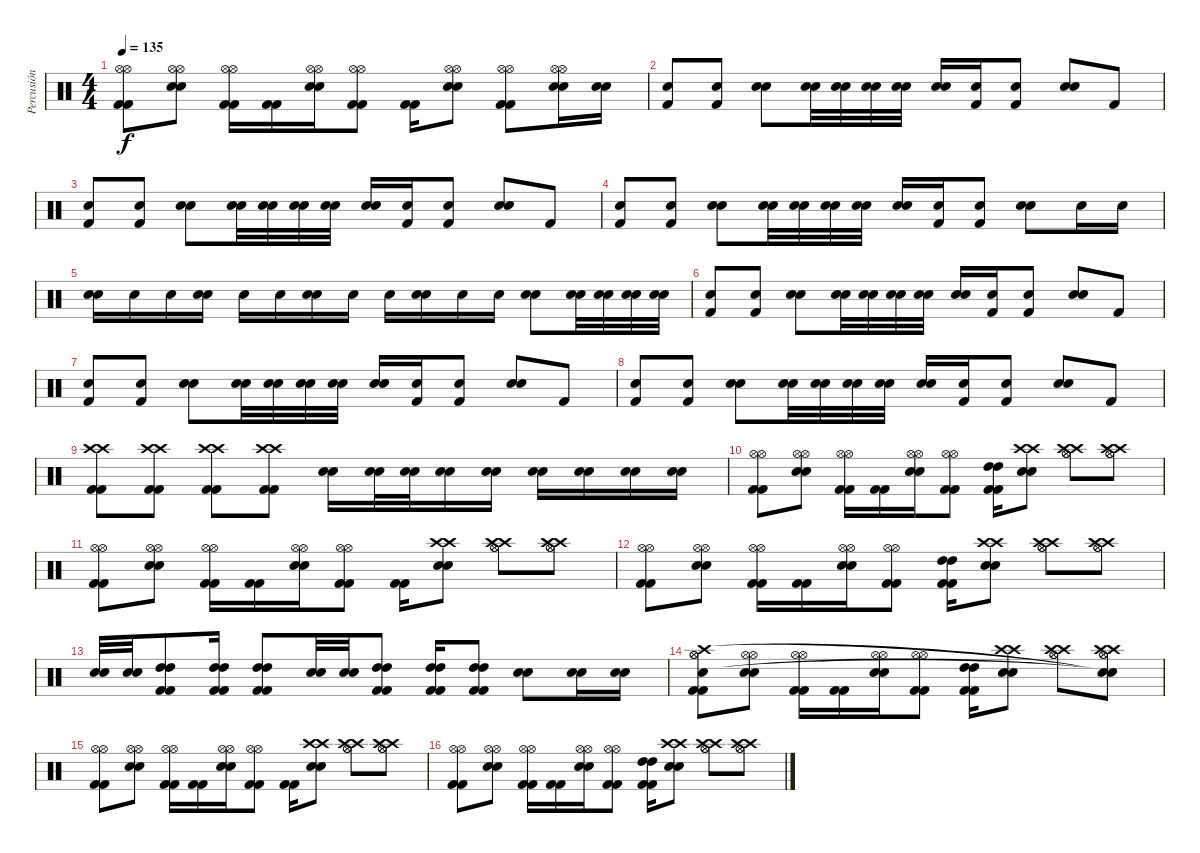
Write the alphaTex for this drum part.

\track ("Percusión" "Percusión") {instrument percussion}
\staff {score}
\articulation defaults
\ts (4 4)
\tempo 135
\clef neutral
\ks c
("Kick (hit) 2" "Kick (hit) 2" "Hi-Hat (open)" "Hi-Hat (open)").8{dy f} ("Snare (hit) 2" "Snare (hit) 2" "Hi-Hat (open)" "Hi-Hat (open)").8 ("Kick (hit) 2" "Kick (hit) 2" "Hi-Hat (open)" "Hi-Hat (open)").16 ("Kick (hit) 2" "Kick (hit) 2").16 ("Snare (hit) 2" "Snare (hit) 2" "Hi-Hat (open)" "Hi-Hat (open)").16 ("Kick (hit) 2" "Kick (hit) 2" "Hi-Hat (open)" "Hi-Hat (open)").8 ("Kick (hit) 2" "Kick (hit) 2").16 ("Snare (hit) 2" "Snare (hit) 2" "Hi-Hat (open)" "Hi-Hat (open)").8 ("Kick (hit) 2" "Kick (hit) 2" "Hi-Hat (open)" "Hi-Hat (open)").8 ("Snare (hit) 2" "Snare (hit) 2" "Hi-Hat (open)" "Hi-Hat (open)").16 ("Snare (hit) 2" "Snare (hit) 2").16 |
("Snare (hit) 2" "Kick (hit) 2").8 ("Snare (hit) 2" "Kick (hit) 2").8 ("Snare (hit) 2" "Snare (hit) 2").8 ("Snare (hit) 2" "Snare (hit) 2").32 ("Snare (hit) 2" "Snare (hit) 2").32 ("Snare (hit) 2" "Snare (hit) 2").32 ("Snare (hit) 2" "Snare (hit) 2").32 ("Snare (hit) 2" "Snare (hit) 2").16 ("Snare (hit) 2" "Kick (hit) 2").16 ("Snare (hit) 2" "Kick (hit) 2").8 ("Snare (hit) 2" "Snare (hit) 2").8 "Kick (hit) 2".8 |
("Snare (hit) 2" "Kick (hit) 2").8 ("Snare (hit) 2" "Kick (hit) 2").8 ("Snare (hit) 2" "Snare (hit) 2").8 ("Snare (hit) 2" "Snare (hit) 2").32 ("Snare (hit) 2" "Snare (hit) 2").32 ("Snare (hit) 2" "Snare (hit) 2").32 ("Snare (hit) 2" "Snare (hit) 2").32 ("Snare (hit) 2" "Snare (hit) 2").16 ("Snare (hit) 2" "Kick (hit) 2").16 ("Snare (hit) 2" "Kick (hit) 2").8 ("Snare (hit) 2" "Snare (hit) 2").8 "Kick (hit) 2".8 |
("Snare (hit) 2" "Kick (hit) 2").8 ("Snare (hit) 2" "Kick (hit) 2").8 ("Snare (hit) 2" "Snare (hit) 2").8 ("Snare (hit) 2" "Snare (hit) 2").32 ("Snare (hit) 2" "Snare (hit) 2").32 ("Snare (hit) 2" "Snare (hit) 2").32 ("Snare (hit) 2" "Snare (hit) 2").32 ("Snare (hit) 2" "Snare (hit) 2").16 ("Snare (hit) 2" "Kick (hit) 2").16 ("Snare (hit) 2" "Kick (hit) 2").8 ("Snare (hit) 2" "Snare (hit) 2").8 "Snare (hit) 2".16 "Snare (hit) 2".16 |
("Snare (hit) 2" "Snare (hit) 2").16 "Snare (hit) 2".16 "Snare (hit) 2".16 ("Snare (hit) 2" "Snare (hit) 2").16 "Snare (hit) 2".16 "Snare (hit) 2".16 ("Snare (hit) 2" "Snare (hit) 2").16 "Snare (hit) 2".16 "Snare (hit) 2".16 ("Snare (hit) 2" "Snare (hit) 2").16 "Snare (hit) 2".16 "Snare (hit) 2".16 ("Snare (hit) 2" "Snare (hit) 2").8 ("Snare (hit) 2" "Snare (hit) 2").32 ("Snare (hit) 2" "Snare (hit) 2").32 ("Snare (hit) 2" "Snare (hit) 2").32 ("Snare (hit) 2" "Snare (hit) 2").32 |
("Snare (hit) 2" "Kick (hit) 2").8 ("Snare (hit) 2" "Kick (hit) 2").8 ("Snare (hit) 2" "Snare (hit) 2").8 ("Snare (hit) 2" "Snare (hit) 2").32 ("Snare (hit) 2" "Snare (hit) 2").32 ("Snare (hit) 2" "Snare (hit) 2").32 ("Snare (hit) 2" "Snare (hit) 2").32 ("Snare (hit) 2" "Snare (hit) 2").16 ("Snare (hit) 2" "Kick (hit) 2").16 ("Snare (hit) 2" "Kick (hit) 2").8 ("Snare (hit) 2" "Snare (hit) 2").8 "Kick (hit) 2".8 |
("Snare (hit) 2" "Kick (hit) 2").8 ("Snare (hit) 2" "Kick (hit) 2").8 ("Snare (hit) 2" "Snare (hit) 2").8 ("Snare (hit) 2" "Snare (hit) 2").32 ("Snare (hit) 2" "Snare (hit) 2").32 ("Snare (hit) 2" "Snare (hit) 2").32 ("Snare (hit) 2" "Snare (hit) 2").32 ("Snare (hit) 2" "Snare (hit) 2").16 ("Snare (hit) 2" "Kick (hit) 2").16 ("Snare (hit) 2" "Kick (hit) 2").8 ("Snare (hit) 2" "Snare (hit) 2").8 "Kick (hit) 2".8 |
("Snare (hit) 2" "Kick (hit) 2").8 ("Snare (hit) 2" "Kick (hit) 2").8 ("Snare (hit) 2" "Snare (hit) 2").8 ("Snare (hit) 2" "Snare (hit) 2").32 ("Snare (hit) 2" "Snare (hit) 2").32 ("Snare (hit) 2" "Snare (hit) 2").32 ("Snare (hit) 2" "Snare (hit) 2").32 ("Snare (hit) 2" "Snare (hit) 2").16 ("Snare (hit) 2" "Kick (hit) 2").16 ("Snare (hit) 2" "Kick (hit) 2").8 ("Snare (hit) 2" "Snare (hit) 2").8 "Kick (hit) 2".8 |
("Crash high (hit)" "Crash high (hit)" "Kick (hit) 2" "Kick (hit) 2").8 ("Crash high (hit)" "Crash high (hit)" "Kick (hit) 2" "Kick (hit) 2").8 ("Crash high (hit)" "Crash high (hit)" "Kick (hit) 2" "Kick (hit) 2").8 ("Crash high (hit)" "Crash high (hit)" "Kick (hit) 2" "Kick (hit) 2").8 ("Snare (hit) 2" "Snare (hit) 2").16 ("Snare (hit) 2" "Snare (hit) 2").32 ("Snare (hit) 2" "Snare (hit) 2").32 ("Snare (hit) 2" "Snare (hit) 2").16 ("Snare (hit) 2" "Snare (hit) 2").16 ("Snare (hit) 2" "Snare (hit) 2").16 ("Snare (hit) 2" "Snare (hit) 2").16 ("Snare (hit) 2" "Snare (hit) 2").16 ("Snare (hit) 2" "Snare (hit) 2").16 |
("Kick (hit) 2" "Kick (hit) 2" "Hi-Hat (open)" "Hi-Hat (open)").8 ("Snare (hit) 2" "Snare (hit) 2" "Hi-Hat (open)" "Hi-Hat (open)").8 ("Kick (hit) 2" "Kick (hit) 2" "Hi-Hat (open)" "Hi-Hat (open)").16 ("Kick (hit) 2" "Kick (hit) 2").16 ("Snare (hit) 2" "Snare (hit) 2" "Hi-Hat (open)" "Hi-Hat (open)").16 ("Kick (hit) 2" "Kick (hit) 2" "Hi-Hat (open)" "Hi-Hat (open)").8 ("Kick (hit) 2" "Kick (hit) 2" "High Tom (hit)" "High Tom (hit)").16 ("Snare (hit) 2" "Snare (hit) 2" "Crash high (hit)" "Crash high (hit)").8 ("Crash high (hit)" "Crash high (hit)" "Hi-Hat (open)" "Hi-Hat (open)").8 ("Crash high (hit)" "Crash high (hit)" "Hi-Hat (open)" "Hi-Hat (open)").8 |
("Kick (hit) 2" "Kick (hit) 2" "Hi-Hat (open)" "Hi-Hat (open)").8 ("Snare (hit) 2" "Snare (hit) 2" "Hi-Hat (open)" "Hi-Hat (open)").8 ("Kick (hit) 2" "Kick (hit) 2" "Hi-Hat (open)" "Hi-Hat (open)").16 ("Kick (hit) 2" "Kick (hit) 2").16 ("Snare (hit) 2" "Snare (hit) 2" "Hi-Hat (open)" "Hi-Hat (open)").16 ("Kick (hit) 2" "Kick (hit) 2" "Hi-Hat (open)" "Hi-Hat (open)").8 ("Kick (hit) 2" "Kick (hit) 2").16 ("Snare (hit) 2" "Snare (hit) 2" "Crash high (hit)" "Crash high (hit)").8 ("Crash high (hit)" "Crash high (hit)" "Hi-Hat (open)" "Hi-Hat (open)").8 ("Crash high (hit)" "Crash high (hit)" "Hi-Hat (open)" "Hi-Hat (open)").8 |
("Kick (hit) 2" "Kick (hit) 2" "Hi-Hat (open)" "Hi-Hat (open)").8 ("Snare (hit) 2" "Snare (hit) 2" "Hi-Hat (open)" "Hi-Hat (open)").8 ("Kick (hit) 2" "Kick (hit) 2" "Hi-Hat (open)" "Hi-Hat (open)").16 ("Kick (hit) 2" "Kick (hit) 2").16 ("Snare (hit) 2" "Snare (hit) 2" "Hi-Hat (open)" "Hi-Hat (open)").16 ("Kick (hit) 2" "Kick (hit) 2" "Hi-Hat (open)" "Hi-Hat (open)").8 ("Kick (hit) 2" "Kick (hit) 2" "High Tom (hit)" "High Tom (hit)").16 ("Snare (hit) 2" "Snare (hit) 2" "Crash high (hit)" "Crash high (hit)").8 ("Crash high (hit)" "Crash high (hit)" "Hi-Hat (open)" "Hi-Hat (open)").8 ("Crash high (hit)" "Crash high (hit)" "Hi-Hat (open)" "Hi-Hat (open)").8 |
("Snare (hit) 2" "Snare (hit) 2").32 ("Snare (hit) 2" "Snare (hit) 2").32 ("Kick (hit) 2" "Kick (hit) 2" "High Tom (hit)" "High Tom (hit)").8 ("Kick (hit) 2" "Kick (hit) 2" "High Tom (hit)" "High Tom (hit)").16 ("Kick (hit) 2" "Kick (hit) 2" "High Tom (hit)" "High Tom (hit)").8 ("Snare (hit) 2" "Snare (hit) 2").32 ("Snare (hit) 2" "Snare (hit) 2").32 ("Kick (hit) 2" "Kick (hit) 2" "High Tom (hit)" "High Tom (hit)").8 ("Kick (hit) 2" "Kick (hit) 2" "High Tom (hit)" "High Tom (hit)").16 ("Kick (hit) 2" "Kick (hit) 2" "High Tom (hit)" "High Tom (hit)").8 ("Snare (hit) 2" "Snare (hit) 2").8 ("Snare (hit) 2" "Snare (hit) 2").16 ("Snare (hit) 2" "Snare (hit) 2").16 |
("Kick (hit) 2" "Kick (hit) 2" "Hi-Hat (open)" "Hi-Hat (open)" "Crash high (hit)" "Snare (hit)").8 ("Snare (hit) 2" "Snare (hit) 2" "Hi-Hat (open)" "Hi-Hat (open)").8 ("Kick (hit) 2" "Kick (hit) 2" "Hi-Hat (open)" "Hi-Hat (open)").16 ("Kick (hit) 2" "Kick (hit) 2").16 ("Snare (hit) 2" "Snare (hit) 2" "Hi-Hat (open)" "Hi-Hat (open)").16 ("Kick (hit) 2" "Kick (hit) 2" "Hi-Hat (open)" "Hi-Hat (open)").8 ("Kick (hit) 2" "Kick (hit) 2" "High Tom (hit)" "High Tom (hit)").16 ("Snare (hit) 2" "Snare (hit) 2" "Crash high (hit)" "Crash high (hit)").8 ("Crash high (hit)" "Crash high (hit)" "Hi-Hat (open)" "Hi-Hat (open)").8 ("Crash high (hit)" "Crash high (hit)" "Hi-Hat (open)" "Hi-Hat (open)" "Snare (hit)"{t} "Snare (hit)"{t}).8 |
("Kick (hit) 2" "Kick (hit) 2" "Hi-Hat (open)" "Hi-Hat (open)").8 ("Snare (hit) 2" "Snare (hit) 2" "Hi-Hat (open)" "Hi-Hat (open)").8 ("Kick (hit) 2" "Kick (hit) 2" "Hi-Hat (open)" "Hi-Hat (open)").16 ("Kick (hit) 2" "Kick (hit) 2").16 ("Snare (hit) 2" "Snare (hit) 2" "Hi-Hat (open)" "Hi-Hat (open)").16 ("Kick (hit) 2" "Kick (hit) 2" "Hi-Hat (open)" "Hi-Hat (open)").8 ("Kick (hit) 2" "Kick (hit) 2").16 ("Snare (hit) 2" "Snare (hit) 2" "Crash high (hit)" "Crash high (hit)").8 ("Crash high (hit)" "Crash high (hit)" "Hi-Hat (open)" "Hi-Hat (open)").8 ("Crash high (hit)" "Crash high (hit)" "Hi-Hat (open)" "Hi-Hat (open)").8 |
("Kick (hit) 2" "Kick (hit) 2" "Hi-Hat (open)" "Hi-Hat (open)").8 ("Snare (hit) 2" "Snare (hit) 2" "Hi-Hat (open)" "Hi-Hat (open)").8 ("Kick (hit) 2" "Kick (hit) 2" "Hi-Hat (open)" "Hi-Hat (open)").16 ("Kick (hit) 2" "Kick (hit) 2").16 ("Snare (hit) 2" "Snare (hit) 2" "Hi-Hat (open)" "Hi-Hat (open)").16 ("Kick (hit) 2" "Kick (hit) 2" "Hi-Hat (open)" "Hi-Hat (open)").8 ("Kick (hit) 2" "Kick (hit) 2" "High Tom (hit)" "High Tom (hit)").16 ("Snare (hit) 2" "Snare (hit) 2" "Crash high (hit)" "Crash high (hit)").8 ("Crash high (hit)" "Crash high (hit)" "Hi-Hat (open)" "Hi-Hat (open)").8 ("Crash high (hit)" "Crash high (hit)" "Hi-Hat (open)" "Hi-Hat (open)").8
